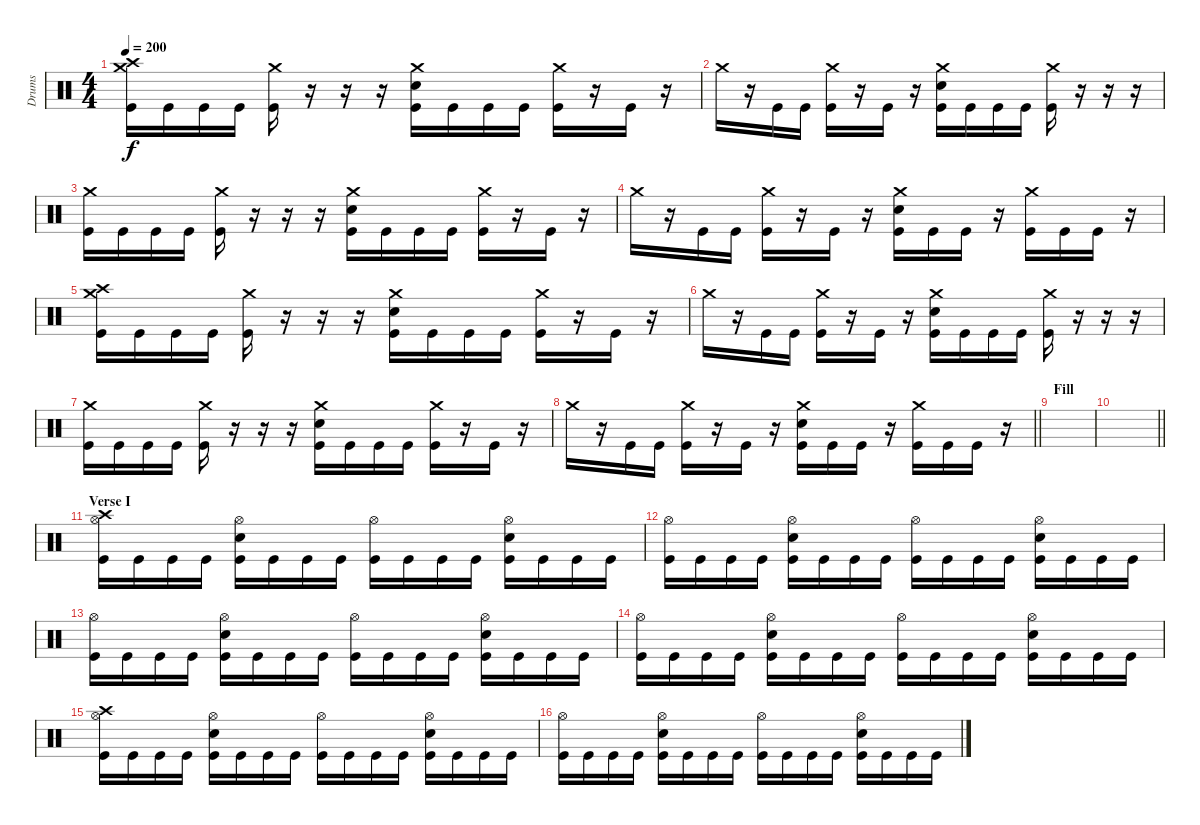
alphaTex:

\track ("Drums" "Drums") {instrument percussion}
\staff {score}
\articulation defaults
\ts (4 4)
\tempo 200
\clef neutral
\ks c
("Crash medium (hit)" "Crash high (hit)" "Kick (hit)").16{dy f} "Kick (hit)".16 "Kick (hit)".16 "Kick (hit)".16 ("Crash medium (hit)" "Kick (hit)").16 r.16 r.16 r.16 ("Crash medium (hit)" "Electric Snare (hit)" "Kick (hit)").16 "Kick (hit)".16 "Kick (hit)".16 "Kick (hit)".16 ("Crash medium (hit)" "Kick (hit)").16 r.16 "Kick (hit)".16 r.16 |
"Crash medium (hit)".16 r.16 "Kick (hit)".16 "Kick (hit)".16 ("Crash medium (hit)" "Kick (hit)").16 r.16 "Kick (hit)".16 r.16 ("Crash medium (hit)" "Electric Snare (hit)" "Kick (hit)").16 "Kick (hit)".16 "Kick (hit)".16 "Kick (hit)".16 ("Crash medium (hit)" "Kick (hit)").16 r.16 r.16 r.16 |
("Crash medium (hit)" "Kick (hit)").16 "Kick (hit)".16 "Kick (hit)".16 "Kick (hit)".16 ("Crash medium (hit)" "Kick (hit)").16 r.16 r.16 r.16 ("Crash medium (hit)" "Electric Snare (hit)" "Kick (hit)").16 "Kick (hit)".16 "Kick (hit)".16 "Kick (hit)".16 ("Crash medium (hit)" "Kick (hit)").16 r.16 "Kick (hit)".16 r.16 |
"Crash medium (hit)".16 r.16 "Kick (hit)".16 "Kick (hit)".16 ("Crash medium (hit)" "Kick (hit)").16 r.16 "Kick (hit)".16 r.16 ("Crash medium (hit)" "Electric Snare (hit)" "Kick (hit)").16 "Kick (hit)".16 "Kick (hit)".16 r.16 ("Crash medium (hit)" "Kick (hit)").16 "Kick (hit)".16 "Kick (hit)".16 r.16 |
("Crash medium (hit)" "Crash high (hit)" "Kick (hit)").16 "Kick (hit)".16 "Kick (hit)".16 "Kick (hit)".16 ("Crash medium (hit)" "Kick (hit)").16 r.16 r.16 r.16 ("Crash medium (hit)" "Electric Snare (hit)" "Kick (hit)").16 "Kick (hit)".16 "Kick (hit)".16 "Kick (hit)".16 ("Crash medium (hit)" "Kick (hit)").16 r.16 "Kick (hit)".16 r.16 |
"Crash medium (hit)".16 r.16 "Kick (hit)".16 "Kick (hit)".16 ("Crash medium (hit)" "Kick (hit)").16 r.16 "Kick (hit)".16 r.16 ("Crash medium (hit)" "Electric Snare (hit)" "Kick (hit)").16 "Kick (hit)".16 "Kick (hit)".16 "Kick (hit)".16 ("Crash medium (hit)" "Kick (hit)").16 r.16 r.16 r.16 |
("Crash medium (hit)" "Kick (hit)").16 "Kick (hit)".16 "Kick (hit)".16 "Kick (hit)".16 ("Crash medium (hit)" "Kick (hit)").16 r.16 r.16 r.16 ("Crash medium (hit)" "Electric Snare (hit)" "Kick (hit)").16 "Kick (hit)".16 "Kick (hit)".16 "Kick (hit)".16 ("Crash medium (hit)" "Kick (hit)").16 r.16 "Kick (hit)".16 r.16 |
\barLineRight lightlight "Crash medium (hit)".16
r.16 "Kick (hit)".16 "Kick (hit)".16 ("Crash medium (hit)" "Kick (hit)").16 r.16 "Kick (hit)".16 r.16 ("Crash medium (hit)" "Electric Snare (hit)" "Kick (hit)").16 "Kick (hit)".16 "Kick (hit)".16 r.16 ("Crash medium (hit)" "Kick (hit)").16 "Kick (hit)".16 "Kick (hit)".16 r.16 |
\section ("" "Fill")
|
\barLineRight lightlight
|
\section ("" "Verse I")
("Hi-Hat (open)" "Crash high (hit)" "Kick (hit)").16 "Kick (hit)".16 "Kick (hit)".16 "Kick (hit)".16 ("Hi-Hat (open)" "Electric Snare (hit)" "Kick (hit)").16 "Kick (hit)".16 "Kick (hit)".16 "Kick (hit)".16 ("Hi-Hat (open)" "Kick (hit)").16 "Kick (hit)".16 "Kick (hit)".16 "Kick (hit)".16 ("Hi-Hat (open)" "Electric Snare (hit)" "Kick (hit)").16 "Kick (hit)".16 "Kick (hit)".16 "Kick (hit)".16 |
("Hi-Hat (open)" "Kick (hit)").16 "Kick (hit)".16 "Kick (hit)".16 "Kick (hit)".16 ("Hi-Hat (open)" "Electric Snare (hit)" "Kick (hit)").16 "Kick (hit)".16 "Kick (hit)".16 "Kick (hit)".16 ("Hi-Hat (open)" "Kick (hit)").16 "Kick (hit)".16 "Kick (hit)".16 "Kick (hit)".16 ("Hi-Hat (open)" "Electric Snare (hit)" "Kick (hit)").16 "Kick (hit)".16 "Kick (hit)".16 "Kick (hit)".16 |
("Hi-Hat (open)" "Kick (hit)").16 "Kick (hit)".16 "Kick (hit)".16 "Kick (hit)".16 ("Hi-Hat (open)" "Electric Snare (hit)" "Kick (hit)").16 "Kick (hit)".16 "Kick (hit)".16 "Kick (hit)".16 ("Hi-Hat (open)" "Kick (hit)").16 "Kick (hit)".16 "Kick (hit)".16 "Kick (hit)".16 ("Hi-Hat (open)" "Electric Snare (hit)" "Kick (hit)").16 "Kick (hit)".16 "Kick (hit)".16 "Kick (hit)".16 |
("Hi-Hat (open)" "Kick (hit)").16 "Kick (hit)".16 "Kick (hit)".16 "Kick (hit)".16 ("Hi-Hat (open)" "Electric Snare (hit)" "Kick (hit)").16 "Kick (hit)".16 "Kick (hit)".16 "Kick (hit)".16 ("Hi-Hat (open)" "Kick (hit)").16 "Kick (hit)".16 "Kick (hit)".16 "Kick (hit)".16 ("Hi-Hat (open)" "Electric Snare (hit)" "Kick (hit)").16 "Kick (hit)".16 "Kick (hit)".16 "Kick (hit)".16 |
("Hi-Hat (open)" "Crash high (hit)" "Kick (hit)").16 "Kick (hit)".16 "Kick (hit)".16 "Kick (hit)".16 ("Hi-Hat (open)" "Electric Snare (hit)" "Kick (hit)").16 "Kick (hit)".16 "Kick (hit)".16 "Kick (hit)".16 ("Hi-Hat (open)" "Kick (hit)").16 "Kick (hit)".16 "Kick (hit)".16 "Kick (hit)".16 ("Hi-Hat (open)" "Electric Snare (hit)" "Kick (hit)").16 "Kick (hit)".16 "Kick (hit)".16 "Kick (hit)".16 |
("Hi-Hat (open)" "Kick (hit)").16 "Kick (hit)".16 "Kick (hit)".16 "Kick (hit)".16 ("Hi-Hat (open)" "Electric Snare (hit)" "Kick (hit)").16 "Kick (hit)".16 "Kick (hit)".16 "Kick (hit)".16 ("Hi-Hat (open)" "Kick (hit)").16 "Kick (hit)".16 "Kick (hit)".16 "Kick (hit)".16 ("Hi-Hat (open)" "Electric Snare (hit)" "Kick (hit)").16 "Kick (hit)".16 "Kick (hit)".16 "Kick (hit)".16
